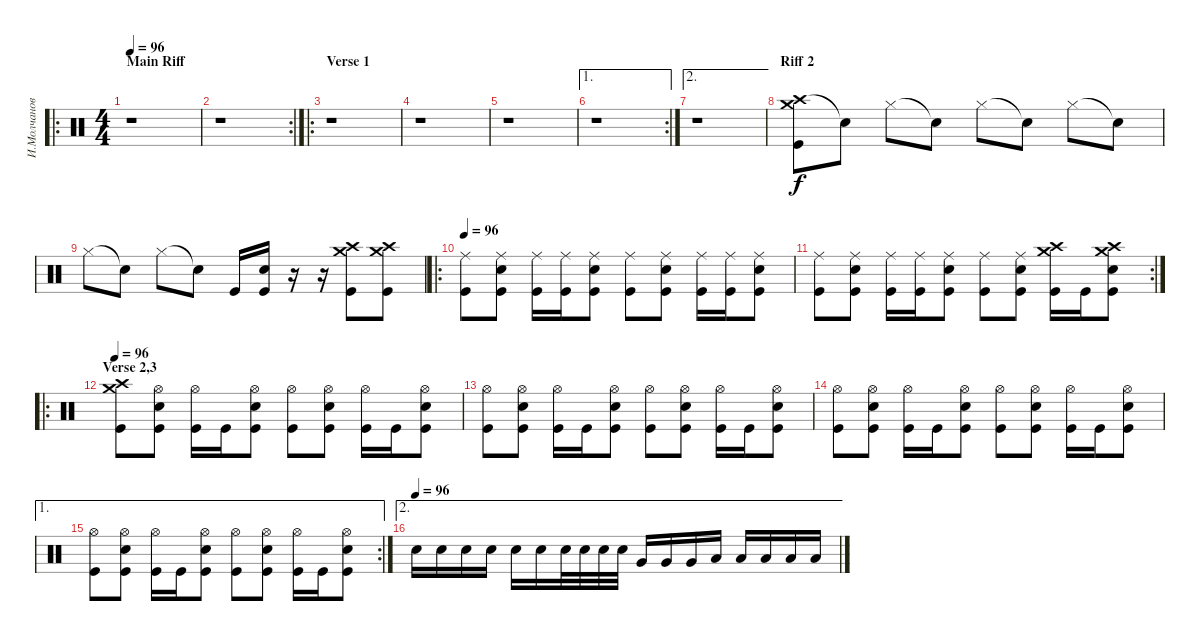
\track ("И.Молчанов" "И.Молчанов") {instrument percussion}
\staff {score}
\articulation defaults
\ro
\ts (4 4)
\section ("" "Main Riff")
\tempo 96
\clef neutral
\ks c
r.1{dy f} |
\rc 2
r.1 |
\ro
\section ("" "Verse 1")
r.1 |
r.1 |
r.1 |
\ae 1
\rc 2
r.1 |
\ae 2
r.1 |
\section ("" "Riff 2")
("Crash high (hit)" "Crash medium (hit)" "Kick (hit)").8 "Snare (hit)"{t}.8 "Hi-Hat (closed)".8 "Snare (hit)"{t}.8 "Hi-Hat (closed)".8 "Snare (hit)"{t}.8 "Hi-Hat (closed)".8 "Snare (hit)"{t}.8 |
"Hi-Hat (closed)".8 "Snare (hit)"{t}.8 "Hi-Hat (closed)".8 "Snare (hit)"{t}.8 "Kick (hit)".16 ("Snare (hit) 2" "Kick (hit)").16 r.16 r.16 ("Crash high (hit)" "Crash medium (hit)" "Kick (hit)").8 ("Crash high (hit)" "Crash medium (hit)" "Kick (hit)").8 |
\ro
\tempo 96
("Ride (middle)" "Kick (hit)").8 ("Ride (middle)" "Snare (hit) 2" "Kick (hit)").8 ("Ride (middle)" "Kick (hit)").16 ("Ride (middle)" "Kick (hit)").16 ("Ride (middle)" "Snare (hit) 2" "Kick (hit)").8 ("Ride (middle)" "Kick (hit)").8 ("Ride (middle)" "Snare (hit) 2" "Kick (hit)").8 ("Ride (middle)" "Kick (hit)").16 ("Ride (middle)" "Kick (hit)").16 ("Ride (middle)" "Snare (hit) 2" "Kick (hit)").8 |
\rc 2
("Ride (middle)" "Kick (hit)").8 ("Ride (middle)" "Snare (hit) 2" "Kick (hit)").8 ("Ride (middle)" "Kick (hit)").16 ("Ride (middle)" "Kick (hit)").16 ("Ride (middle)" "Snare (hit) 2" "Kick (hit)").8 ("Ride (middle)" "Kick (hit)").8 ("Ride (middle)" "Snare (hit) 2" "Kick (hit)").8 ("Crash high (hit)" "Crash medium (hit)" "Kick (hit)").16 "Kick (hit)".16 ("Crash high (hit)" "Crash medium (hit)" "Snare (hit) 2" "Kick (hit)").8 |
\ro
\section ("" "Verse 2,3")
\tempo 96
("Crash medium (hit)" "Crash high (hit)" "Kick (hit)").8 ("Hi-Hat (open)" "Snare (hit) 2" "Kick (hit)").8 ("Hi-Hat (open)" "Kick (hit)").16 "Kick (hit)".16 ("Hi-Hat (open)" "Snare (hit) 2" "Kick (hit)").8 ("Hi-Hat (open)" "Kick (hit)").8 ("Hi-Hat (open)" "Snare (hit) 2" "Kick (hit)").8 ("Hi-Hat (open)" "Kick (hit)").16 "Kick (hit)".16 ("Hi-Hat (open)" "Snare (hit) 2" "Kick (hit)").8 |
("Hi-Hat (open)" "Kick (hit)").8 ("Hi-Hat (open)" "Snare (hit) 2" "Kick (hit)").8 ("Hi-Hat (open)" "Kick (hit)").16 "Kick (hit)".16 ("Hi-Hat (open)" "Snare (hit) 2" "Kick (hit)").8 ("Hi-Hat (open)" "Kick (hit)").8 ("Hi-Hat (open)" "Snare (hit) 2" "Kick (hit)").8 ("Hi-Hat (open)" "Kick (hit)").16 "Kick (hit)".16 ("Hi-Hat (open)" "Snare (hit) 2" "Kick (hit)").8 |
("Hi-Hat (open)" "Kick (hit)").8 ("Hi-Hat (open)" "Snare (hit) 2" "Kick (hit)").8 ("Hi-Hat (open)" "Kick (hit)").16 "Kick (hit)".16 ("Hi-Hat (open)" "Snare (hit) 2" "Kick (hit)").8 ("Hi-Hat (open)" "Kick (hit)").8 ("Hi-Hat (open)" "Snare (hit) 2" "Kick (hit)").8 ("Hi-Hat (open)" "Kick (hit)").16 "Kick (hit)".16 ("Hi-Hat (open)" "Snare (hit) 2" "Kick (hit)").8 |
\ae 1
\rc 2
("Hi-Hat (open)" "Kick (hit)").8 ("Hi-Hat (open)" "Snare (hit) 2" "Kick (hit)").8 ("Hi-Hat (open)" "Kick (hit)").16 "Kick (hit)".16 ("Hi-Hat (open)" "Snare (hit) 2" "Kick (hit)").8 ("Hi-Hat (open)" "Kick (hit)").8 ("Hi-Hat (open)" "Snare (hit) 2" "Kick (hit)").8 ("Hi-Hat (open)" "Kick (hit)").16 "Kick (hit)".16 ("Hi-Hat (open)" "Snare (hit) 2" "Kick (hit)").8 |
\ae 2
\tempo (96)
"Snare (hit) 2".16 "Snare (hit) 2".16 "Snare (hit) 2".16 "Snare (hit) 2".16 "Snare (hit) 2".16 "Snare (hit) 2".16 "Snare (hit) 2".32 "Snare (hit) 2".32 "Snare (hit) 2".32 "Snare (hit) 2".32 "Very Low Tom (hit)".16 "Very Low Tom (hit)".16 "Very Low Tom (hit)".16 "Low Floor Tom (hit)".16 "Low Floor Tom (hit)".16 "Low Floor Tom (hit)".16 "Low Floor Tom (hit)".16 "Low Floor Tom (hit)".16
